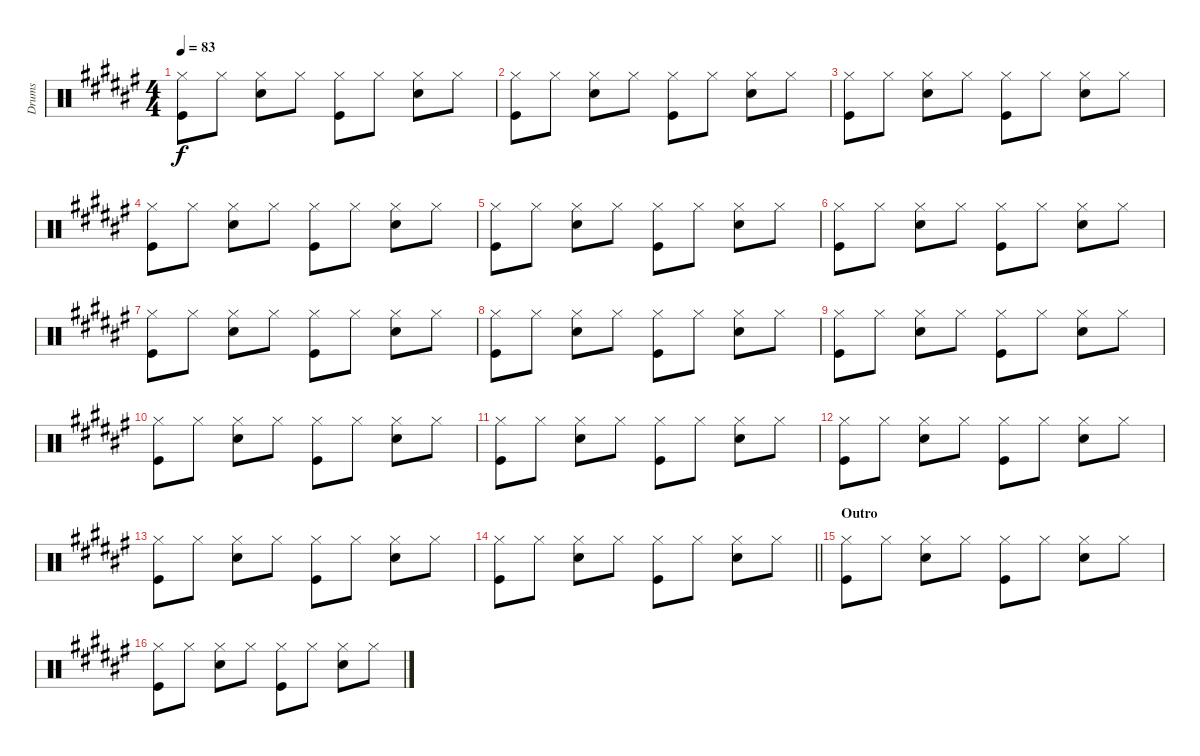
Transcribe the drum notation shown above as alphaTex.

\track ("Drums" "Drums") {instrument percussion}
\staff {score}
\articulation defaults
\ts (4 4)
\tempo 83
\clef neutral
\ks d#minor
("Hi-Hat (closed)" "Kick (hit)").8{dy f} "Hi-Hat (closed)".8 ("Hi-Hat (closed)" "Snare (hit) 2").8 "Hi-Hat (closed)".8 ("Hi-Hat (closed)" "Kick (hit)").8 "Hi-Hat (closed)".8 ("Hi-Hat (closed)" "Snare (hit) 2").8 "Hi-Hat (closed)".8 |
("Hi-Hat (closed)" "Kick (hit)").8 "Hi-Hat (closed)".8 ("Hi-Hat (closed)" "Snare (hit) 2").8 "Hi-Hat (closed)".8 ("Hi-Hat (closed)" "Kick (hit)").8 "Hi-Hat (closed)".8 ("Hi-Hat (closed)" "Snare (hit) 2").8 "Hi-Hat (closed)".8 |
("Hi-Hat (closed)" "Kick (hit)").8 "Hi-Hat (closed)".8 ("Hi-Hat (closed)" "Snare (hit) 2").8 "Hi-Hat (closed)".8 ("Hi-Hat (closed)" "Kick (hit)").8 "Hi-Hat (closed)".8 ("Hi-Hat (closed)" "Snare (hit) 2").8 "Hi-Hat (closed)".8 |
("Hi-Hat (closed)" "Kick (hit)").8 "Hi-Hat (closed)".8 ("Hi-Hat (closed)" "Snare (hit) 2").8 "Hi-Hat (closed)".8 ("Hi-Hat (closed)" "Kick (hit)").8 "Hi-Hat (closed)".8 ("Hi-Hat (closed)" "Snare (hit) 2").8 "Hi-Hat (closed)".8 |
("Hi-Hat (closed)" "Kick (hit)").8 "Hi-Hat (closed)".8 ("Hi-Hat (closed)" "Snare (hit) 2").8 "Hi-Hat (closed)".8 ("Hi-Hat (closed)" "Kick (hit)").8 "Hi-Hat (closed)".8 ("Hi-Hat (closed)" "Snare (hit) 2").8 "Hi-Hat (closed)".8 |
("Hi-Hat (closed)" "Kick (hit)").8 "Hi-Hat (closed)".8 ("Hi-Hat (closed)" "Snare (hit) 2").8 "Hi-Hat (closed)".8 ("Hi-Hat (closed)" "Kick (hit)").8 "Hi-Hat (closed)".8 ("Hi-Hat (closed)" "Snare (hit) 2").8 "Hi-Hat (closed)".8 |
("Hi-Hat (closed)" "Kick (hit)").8 "Hi-Hat (closed)".8 ("Hi-Hat (closed)" "Snare (hit) 2").8 "Hi-Hat (closed)".8 ("Hi-Hat (closed)" "Kick (hit)").8 "Hi-Hat (closed)".8 ("Hi-Hat (closed)" "Snare (hit) 2").8 "Hi-Hat (closed)".8 |
("Hi-Hat (closed)" "Kick (hit)").8 "Hi-Hat (closed)".8 ("Hi-Hat (closed)" "Snare (hit) 2").8 "Hi-Hat (closed)".8 ("Hi-Hat (closed)" "Kick (hit)").8 "Hi-Hat (closed)".8 ("Hi-Hat (closed)" "Snare (hit) 2").8 "Hi-Hat (closed)".8 |
("Hi-Hat (closed)" "Kick (hit)").8 "Hi-Hat (closed)".8 ("Hi-Hat (closed)" "Snare (hit) 2").8 "Hi-Hat (closed)".8 ("Hi-Hat (closed)" "Kick (hit)").8 "Hi-Hat (closed)".8 ("Hi-Hat (closed)" "Snare (hit) 2").8 "Hi-Hat (closed)".8 |
("Hi-Hat (closed)" "Kick (hit)").8 "Hi-Hat (closed)".8 ("Hi-Hat (closed)" "Snare (hit) 2").8 "Hi-Hat (closed)".8 ("Hi-Hat (closed)" "Kick (hit)").8 "Hi-Hat (closed)".8 ("Hi-Hat (closed)" "Snare (hit) 2").8 "Hi-Hat (closed)".8 |
("Hi-Hat (closed)" "Kick (hit)").8 "Hi-Hat (closed)".8 ("Hi-Hat (closed)" "Snare (hit) 2").8 "Hi-Hat (closed)".8 ("Hi-Hat (closed)" "Kick (hit)").8 "Hi-Hat (closed)".8 ("Hi-Hat (closed)" "Snare (hit) 2").8 "Hi-Hat (closed)".8 |
("Hi-Hat (closed)" "Kick (hit)").8 "Hi-Hat (closed)".8 ("Hi-Hat (closed)" "Snare (hit) 2").8 "Hi-Hat (closed)".8 ("Hi-Hat (closed)" "Kick (hit)").8 "Hi-Hat (closed)".8 ("Hi-Hat (closed)" "Snare (hit) 2").8 "Hi-Hat (closed)".8 |
("Hi-Hat (closed)" "Kick (hit)").8 "Hi-Hat (closed)".8 ("Hi-Hat (closed)" "Snare (hit) 2").8 "Hi-Hat (closed)".8 ("Hi-Hat (closed)" "Kick (hit)").8 "Hi-Hat (closed)".8 ("Hi-Hat (closed)" "Snare (hit) 2").8 "Hi-Hat (closed)".8 |
\barLineRight lightlight
("Hi-Hat (closed)" "Kick (hit)").8 "Hi-Hat (closed)".8 ("Hi-Hat (closed)" "Snare (hit) 2").8 "Hi-Hat (closed)".8 ("Hi-Hat (closed)" "Kick (hit)").8 "Hi-Hat (closed)".8 ("Hi-Hat (closed)" "Snare (hit) 2").8 "Hi-Hat (closed)".8 |
\section ("" "Outro")
("Hi-Hat (closed)" "Kick (hit)").8 "Hi-Hat (closed)".8 ("Hi-Hat (closed)" "Snare (hit) 2").8 "Hi-Hat (closed)".8 ("Hi-Hat (closed)" "Kick (hit)").8 "Hi-Hat (closed)".8 ("Hi-Hat (closed)" "Snare (hit) 2").8 "Hi-Hat (closed)".8 |
("Hi-Hat (closed)" "Kick (hit)").8 "Hi-Hat (closed)".8 ("Hi-Hat (closed)" "Snare (hit) 2").8 "Hi-Hat (closed)".8 ("Hi-Hat (closed)" "Kick (hit)").8 "Hi-Hat (closed)".8 ("Hi-Hat (closed)" "Snare (hit) 2").8 "Hi-Hat (closed)".8
